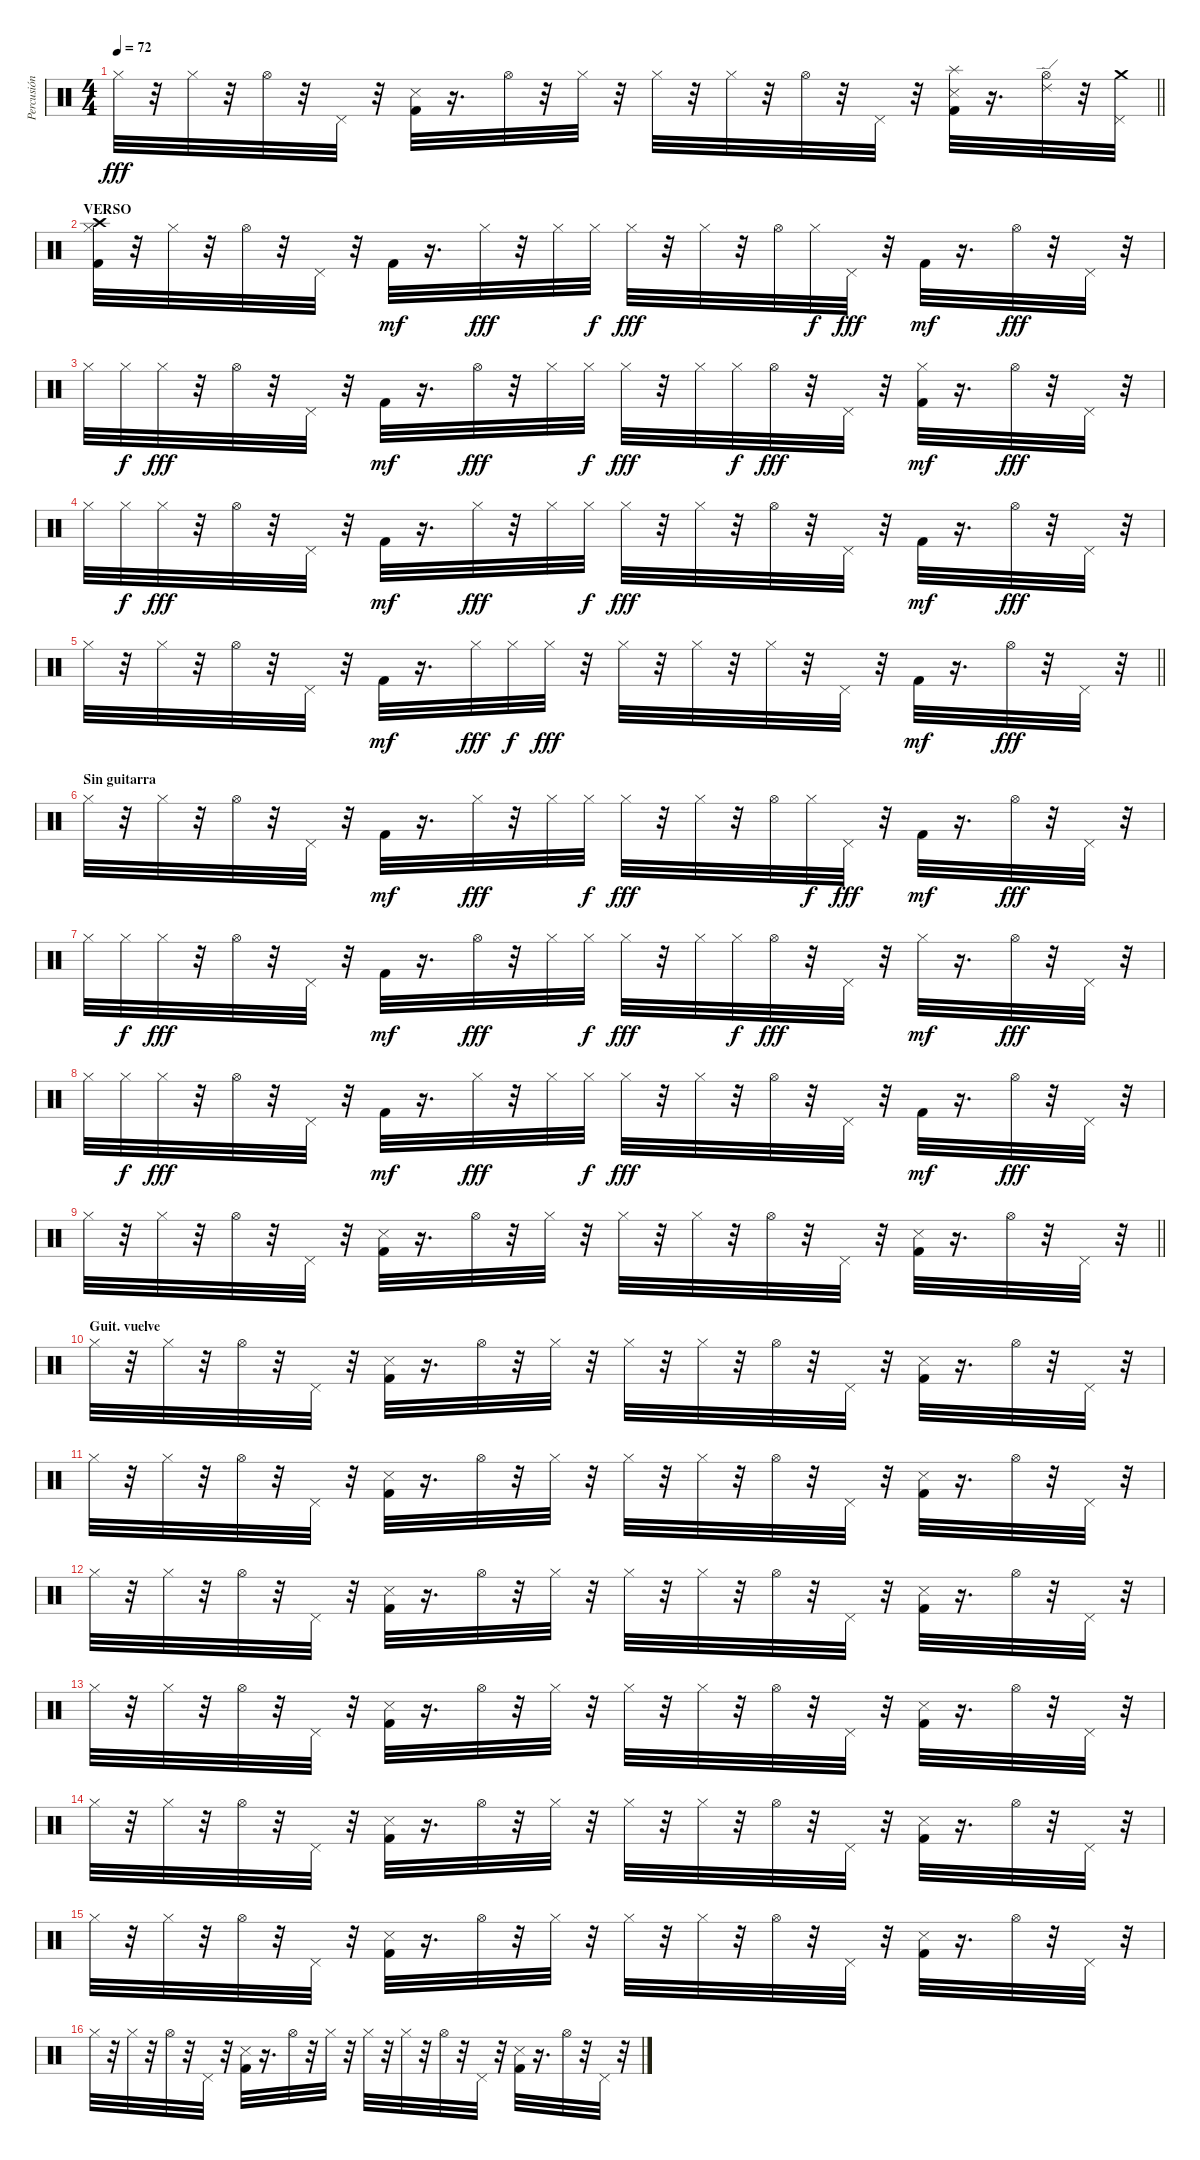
\track ("Percusión" "Percusión") {instrument percussion}
\staff {score}
\articulation defaults
\ts (4 4)
\tempo 72
\clef neutral
\barLineRight lightlight
\ks c "Hi-Hat (closed)".32{dy fff}
r.32 "Hi-Hat (closed)".32 r.32 "Hi-Hat (open)".32 r.32 "Pedal Hi-Hat (hit)".32 r.32 ("Kick (hit) 2" "Snare (side stick) 3").32 r.16{d} "Hi-Hat (open)".32 r.32 "Hi-Hat (closed)".32 r.32 "Hi-Hat (closed)".32 r.32 "Hi-Hat (closed)".32 r.32 "Hi-Hat (open)".32 r.32 "Pedal Hi-Hat (hit)".32 r.32 ("Kick (hit) 2" "Snare (side stick) 3" "Splash (hit)").32 r.16{d} ("Hi-Hat (open)" "Ride (edge) 2").32 r.32 ("Pedal Hi-Hat (hit)" "Crash medium (hit)").32 |
\section ("" "VERSO")
("Hi-Hat (closed)" "Crash high (hit)" "Kick (hit) 2").32 r.32 "Hi-Hat (closed)".32 r.32 "Hi-Hat (open)".32 r.32 "Pedal Hi-Hat (hit)".32 r.32 "Kick (hit) 2".32{dy mf} r.16{d} "Hi-Hat (closed)".32{dy fff} r.32 "Hi-Hat (closed)".32 "Hi-Hat (closed)".32{dy f} "Hi-Hat (closed)".32{dy fff} r.32 "Hi-Hat (closed)".32 r.32 "Hi-Hat (open)".32 "Hi-Hat (closed)".32{dy f} "Pedal Hi-Hat (hit)".32{dy fff} r.32 "Kick (hit) 2".32{dy mf} r.16{d} "Hi-Hat (open)".32{dy fff} r.32 "Pedal Hi-Hat (hit)".32 r.32 |
"Hi-Hat (closed)".32 "Hi-Hat (closed)".32{dy f} "Hi-Hat (closed)".32{dy fff} r.32 "Hi-Hat (open)".32 r.32 "Pedal Hi-Hat (hit)".32 r.32 "Kick (hit) 2".32{dy mf} r.16{d} "Hi-Hat (open)".32{dy fff} r.32 "Hi-Hat (closed)".32 "Hi-Hat (closed)".32{dy f} "Hi-Hat (closed)".32{dy fff} r.32 "Hi-Hat (closed)".32 "Hi-Hat (closed)".32{dy f} "Hi-Hat (open)".32{dy fff} r.32 "Pedal Hi-Hat (hit)".32 r.32 ("Hi-Hat (closed)" "Kick (hit) 2").32{dy mf} r.16{d} "Hi-Hat (open)".32{dy fff} r.32 "Pedal Hi-Hat (hit)".32 r.32 |
"Hi-Hat (closed)".32 "Hi-Hat (closed)".32{dy f} "Hi-Hat (closed)".32{dy fff} r.32 "Hi-Hat (open)".32 r.32 "Pedal Hi-Hat (hit)".32 r.32 "Kick (hit) 2".32{dy mf} r.16{d} "Hi-Hat (closed)".32{dy fff} r.32 "Hi-Hat (closed)".32 "Hi-Hat (closed)".32{dy f} "Hi-Hat (closed)".32{dy fff} r.32 "Hi-Hat (closed)".32 r.32 "Hi-Hat (open)".32 r.32 "Pedal Hi-Hat (hit)".32 r.32 "Kick (hit) 2".32{dy mf} r.16{d} "Hi-Hat (open)".32{dy fff} r.32 "Pedal Hi-Hat (hit)".32 r.32 |
\barLineRight lightlight "Hi-Hat (closed)".32
r.32 "Hi-Hat (closed)".32 r.32 "Hi-Hat (open)".32 r.32 "Pedal Hi-Hat (hit)".32 r.32 "Kick (hit) 2".32{dy mf} r.16{d} "Hi-Hat (closed)".32{dy fff} "Hi-Hat (closed)".32{dy f} "Hi-Hat (closed)".32{dy fff} r.32 "Hi-Hat (closed)".32 r.32 "Hi-Hat (closed)".32 r.32 "Hi-Hat (closed)".32 r.32 "Pedal Hi-Hat (hit)".32 r.32 "Kick (hit) 2".32{dy mf} r.16{d} "Hi-Hat (open)".32{dy fff} r.32 "Pedal Hi-Hat (hit)".32 r.32 |
\section ("" "Sin guitarra")
"Hi-Hat (closed)".32 r.32 "Hi-Hat (closed)".32 r.32 "Hi-Hat (open)".32 r.32 "Pedal Hi-Hat (hit)".32 r.32 "Kick (hit) 2".32{dy mf} r.16{d} "Hi-Hat (closed)".32{dy fff} r.32 "Hi-Hat (closed)".32 "Hi-Hat (closed)".32{dy f} "Hi-Hat (closed)".32{dy fff} r.32 "Hi-Hat (closed)".32 r.32 "Hi-Hat (open)".32 "Hi-Hat (closed)".32{dy f} "Pedal Hi-Hat (hit)".32{dy fff} r.32 "Kick (hit) 2".32{dy mf} r.16{d} "Hi-Hat (open)".32{dy fff} r.32 "Pedal Hi-Hat (hit)".32 r.32 |
"Hi-Hat (closed)".32 "Hi-Hat (closed)".32{dy f} "Hi-Hat (closed)".32{dy fff} r.32 "Hi-Hat (open)".32 r.32 "Pedal Hi-Hat (hit)".32 r.32 "Kick (hit) 2".32{dy mf} r.16{d} "Hi-Hat (open)".32{dy fff} r.32 "Hi-Hat (closed)".32 "Hi-Hat (closed)".32{dy f} "Hi-Hat (closed)".32{dy fff} r.32 "Hi-Hat (closed)".32 "Hi-Hat (closed)".32{dy f} "Hi-Hat (open)".32{dy fff} r.32 "Pedal Hi-Hat (hit)".32 r.32 "Hi-Hat (closed)".32{dy mf} r.16{d} "Hi-Hat (open)".32{dy fff} r.32 "Pedal Hi-Hat (hit)".32 r.32 |
"Hi-Hat (closed)".32 "Hi-Hat (closed)".32{dy f} "Hi-Hat (closed)".32{dy fff} r.32 "Hi-Hat (open)".32 r.32 "Pedal Hi-Hat (hit)".32 r.32 "Kick (hit) 2".32{dy mf} r.16{d} "Hi-Hat (closed)".32{dy fff} r.32 "Hi-Hat (closed)".32 "Hi-Hat (closed)".32{dy f} "Hi-Hat (closed)".32{dy fff} r.32 "Hi-Hat (closed)".32 r.32 "Hi-Hat (open)".32 r.32 "Pedal Hi-Hat (hit)".32 r.32 "Kick (hit) 2".32{dy mf} r.16{d} "Hi-Hat (open)".32{dy fff} r.32 "Pedal Hi-Hat (hit)".32 r.32 |
\barLineRight lightlight "Hi-Hat (closed)".32
r.32 "Hi-Hat (closed)".32 r.32 "Hi-Hat (open)".32 r.32 "Pedal Hi-Hat (hit)".32 r.32 ("Kick (hit) 2" "Snare (side stick) 3").32 r.16{d} "Hi-Hat (open)".32 r.32 "Hi-Hat (closed)".32 r.32 "Hi-Hat (closed)".32 r.32 "Hi-Hat (closed)".32 r.32 "Hi-Hat (open)".32 r.32 "Pedal Hi-Hat (hit)".32 r.32 ("Kick (hit) 2" "Snare (side stick) 3").32 r.16{d} "Hi-Hat (open)".32 r.32 "Pedal Hi-Hat (hit)".32 r.32 |
\section ("" "Guit. vuelve")
"Hi-Hat (closed)".32 r.32 "Hi-Hat (closed)".32 r.32 "Hi-Hat (open)".32 r.32 "Pedal Hi-Hat (hit)".32 r.32 ("Kick (hit) 2" "Snare (side stick) 3").32 r.16{d} "Hi-Hat (open)".32 r.32 "Hi-Hat (closed)".32 r.32 "Hi-Hat (closed)".32 r.32 "Hi-Hat (closed)".32 r.32 "Hi-Hat (open)".32 r.32 "Pedal Hi-Hat (hit)".32 r.32 ("Kick (hit) 2" "Snare (side stick) 3").32 r.16{d} "Hi-Hat (open)".32 r.32 "Pedal Hi-Hat (hit)".32 r.32 |
"Hi-Hat (closed)".32 r.32 "Hi-Hat (closed)".32 r.32 "Hi-Hat (open)".32 r.32 "Pedal Hi-Hat (hit)".32 r.32 ("Kick (hit) 2" "Snare (side stick) 3").32 r.16{d} "Hi-Hat (open)".32 r.32 "Hi-Hat (closed)".32 r.32 "Hi-Hat (closed)".32 r.32 "Hi-Hat (closed)".32 r.32 "Hi-Hat (open)".32 r.32 "Pedal Hi-Hat (hit)".32 r.32 ("Kick (hit) 2" "Snare (side stick) 3").32 r.16{d} "Hi-Hat (open)".32 r.32 "Pedal Hi-Hat (hit)".32 r.32 |
"Hi-Hat (closed)".32 r.32 "Hi-Hat (closed)".32 r.32 "Hi-Hat (open)".32 r.32 "Pedal Hi-Hat (hit)".32 r.32 ("Kick (hit) 2" "Snare (side stick) 3").32 r.16{d} "Hi-Hat (open)".32 r.32 "Hi-Hat (closed)".32 r.32 "Hi-Hat (closed)".32 r.32 "Hi-Hat (closed)".32 r.32 "Hi-Hat (open)".32 r.32 "Pedal Hi-Hat (hit)".32 r.32 ("Kick (hit) 2" "Snare (side stick) 3").32 r.16{d} "Hi-Hat (open)".32 r.32 "Pedal Hi-Hat (hit)".32 r.32 |
"Hi-Hat (closed)".32 r.32 "Hi-Hat (closed)".32 r.32 "Hi-Hat (open)".32 r.32 "Pedal Hi-Hat (hit)".32 r.32 ("Kick (hit) 2" "Snare (side stick) 3").32 r.16{d} "Hi-Hat (open)".32 r.32 "Hi-Hat (closed)".32 r.32 "Hi-Hat (closed)".32 r.32 "Hi-Hat (closed)".32 r.32 "Hi-Hat (open)".32 r.32 "Pedal Hi-Hat (hit)".32 r.32 ("Kick (hit) 2" "Snare (side stick) 3").32 r.16{d} "Hi-Hat (open)".32 r.32 "Pedal Hi-Hat (hit)".32 r.32 |
"Hi-Hat (closed)".32 r.32 "Hi-Hat (closed)".32 r.32 "Hi-Hat (open)".32 r.32 "Pedal Hi-Hat (hit)".32 r.32 ("Kick (hit) 2" "Snare (side stick) 3").32 r.16{d} "Hi-Hat (open)".32 r.32 "Hi-Hat (closed)".32 r.32 "Hi-Hat (closed)".32 r.32 "Hi-Hat (closed)".32 r.32 "Hi-Hat (open)".32 r.32 "Pedal Hi-Hat (hit)".32 r.32 ("Kick (hit) 2" "Snare (side stick) 3").32 r.16{d} "Hi-Hat (open)".32 r.32 "Pedal Hi-Hat (hit)".32 r.32 |
"Hi-Hat (closed)".32 r.32 "Hi-Hat (closed)".32 r.32 "Hi-Hat (open)".32 r.32 "Pedal Hi-Hat (hit)".32 r.32 ("Kick (hit) 2" "Snare (side stick) 3").32 r.16{d} "Hi-Hat (open)".32 r.32 "Hi-Hat (closed)".32 r.32 "Hi-Hat (closed)".32 r.32 "Hi-Hat (closed)".32 r.32 "Hi-Hat (open)".32 r.32 "Pedal Hi-Hat (hit)".32 r.32 ("Kick (hit) 2" "Snare (side stick) 3").32 r.16{d} "Hi-Hat (open)".32 r.32 "Pedal Hi-Hat (hit)".32 r.32 |
"Hi-Hat (closed)".32 r.32 "Hi-Hat (closed)".32 r.32 "Hi-Hat (open)".32 r.32 "Pedal Hi-Hat (hit)".32 r.32 ("Kick (hit) 2" "Snare (side stick) 3").32 r.16{d} "Hi-Hat (open)".32 r.32 "Hi-Hat (closed)".32 r.32 "Hi-Hat (closed)".32 r.32 "Hi-Hat (closed)".32 r.32 "Hi-Hat (open)".32 r.32 "Pedal Hi-Hat (hit)".32 r.32 ("Kick (hit) 2" "Snare (side stick) 3").32 r.16{d} "Hi-Hat (open)".32 r.32 "Pedal Hi-Hat (hit)".32 r.32
